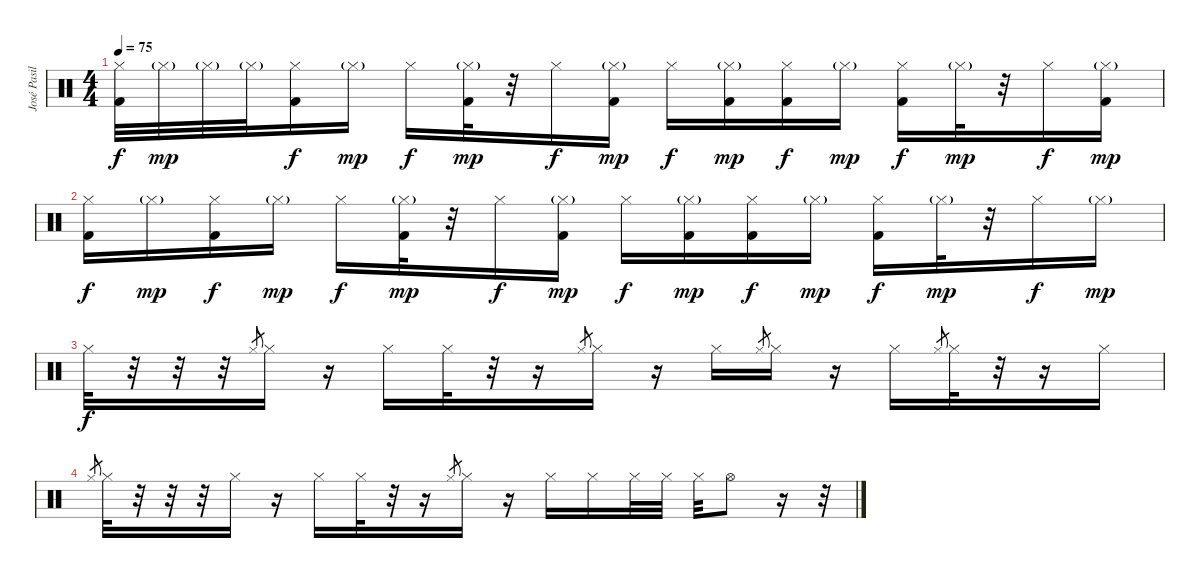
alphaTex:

\track ("José Pasillas" "José Pasil") {instrument percussion}
\staff {score}
\articulation defaults
\ts (4 4)
\tempo 75
\clef neutral
\ks c
("Hi-Hat (closed)" "Kick (hit) 2").32{dy f} "Hi-Hat (closed)"{g}.32{dy mp} "Hi-Hat (closed)"{g}.32 "Hi-Hat (closed)"{g}.32 ("Hi-Hat (closed)" "Kick (hit) 2").16{dy f} "Hi-Hat (closed)"{g}.16{dy mp} "Hi-Hat (closed)".16{dy f} ("Hi-Hat (closed)"{g} "Kick (hit) 2").32{dy mp} r.32 "Hi-Hat (closed)".16{dy f} ("Hi-Hat (closed)"{g} "Kick (hit) 2").16{dy mp} "Hi-Hat (closed)".16{dy f} ("Hi-Hat (closed)"{g} "Kick (hit) 2").16{dy mp} ("Hi-Hat (closed)" "Kick (hit) 2").16{dy f} "Hi-Hat (closed)"{g}.16{dy mp} ("Hi-Hat (closed)" "Kick (hit) 2").16{dy f} "Hi-Hat (closed)"{g}.32{dy mp} r.32 "Hi-Hat (closed)".16{dy f} ("Hi-Hat (closed)"{g} "Kick (hit) 2").16{dy mp} |
("Hi-Hat (closed)" "Kick (hit) 2").16{dy f} "Hi-Hat (closed)"{g}.16{dy mp} ("Hi-Hat (closed)" "Kick (hit) 2").16{dy f} "Hi-Hat (closed)"{g}.16{dy mp} "Hi-Hat (closed)".16{dy f} ("Hi-Hat (closed)"{g} "Kick (hit) 2").32{dy mp} r.32 "Hi-Hat (closed)".16{dy f} ("Hi-Hat (closed)"{g} "Kick (hit) 2").16{dy mp} "Hi-Hat (closed)".16{dy f} ("Hi-Hat (closed)"{g} "Kick (hit) 2").16{dy mp} ("Hi-Hat (closed)" "Kick (hit) 2").16{dy f} "Hi-Hat (closed)"{g}.16{dy mp} ("Hi-Hat (closed)" "Kick (hit) 2").16{dy f} "Hi-Hat (closed)"{g}.32{dy mp} r.32 "Hi-Hat (closed)".16{dy f} "Hi-Hat (closed)"{g}.16{dy mp} |
"Hi-Hat (closed)".32{dy f} r.32 r.32 r.32 "Hi-Hat (closed)".8{gr} "Hi-Hat (closed)".16 r.16 "Hi-Hat (closed)".16 "Hi-Hat (closed)".32 r.32 r.16 "Hi-Hat (closed)".8{gr} "Hi-Hat (closed)".16 r.16 "Hi-Hat (closed)".16 "Hi-Hat (closed)".8{gr} "Hi-Hat (closed)".16 r.16 "Hi-Hat (closed)".16 "Hi-Hat (closed)".8{gr} "Hi-Hat (closed)".32 r.32 r.16 "Hi-Hat (closed)".16 |
"Hi-Hat (closed)".8{gr} "Hi-Hat (closed)".32 r.32 r.32 r.32 "Hi-Hat (closed)".16 r.16 "Hi-Hat (closed)".16 "Hi-Hat (closed)".32 r.32 r.16 "Hi-Hat (closed)".8{gr} "Hi-Hat (closed)".16 r.16 "Hi-Hat (closed)".16 "Hi-Hat (closed)".16 "Hi-Hat (closed)".32 "Hi-Hat (closed)".32 "Hi-Hat (closed)".32 "Hi-Hat (open)".8 r.16 r.32
